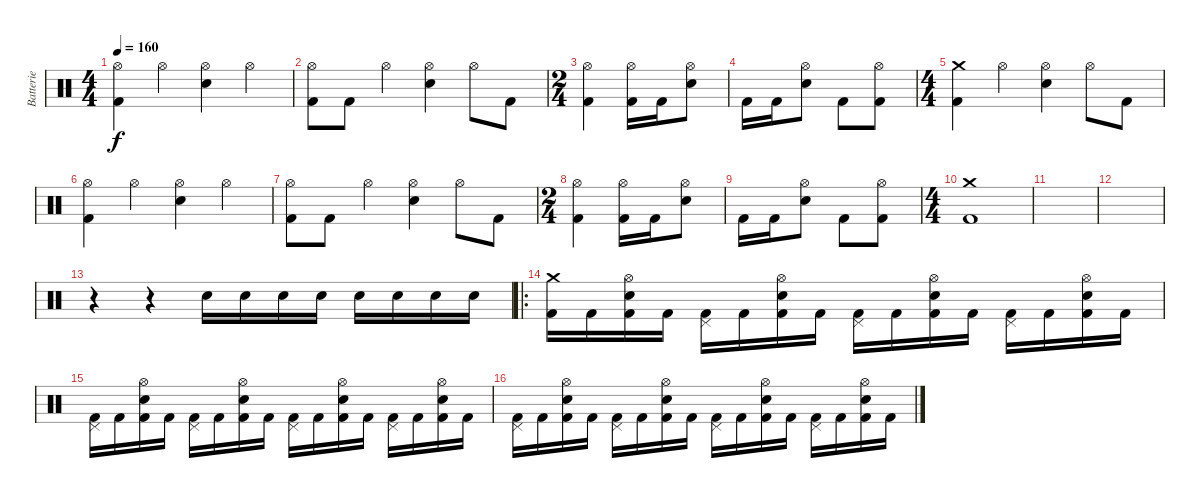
\track ("Batterie" "Batterie") {instrument percussion}
\staff {score}
\articulation defaults
\ts (4 4)
\tempo 160
\clef neutral
\ks c
("Hi-Hat (open)" "Kick (hit) 2").4{dy f} "Hi-Hat (open)".4 ("Hi-Hat (open)" "Electric Snare (hit)").4 "Hi-Hat (open)".4 |
("Hi-Hat (open)" "Kick (hit) 2").8 "Kick (hit) 2".8 "Hi-Hat (open)".4 ("Hi-Hat (open)" "Electric Snare (hit)").4 "Hi-Hat (open)".8 "Kick (hit) 2".8 |
\ts (2 4)
("Hi-Hat (open)" "Kick (hit) 2").4 ("Hi-Hat (open)" "Kick (hit) 2").16 "Kick (hit) 2".16 ("Hi-Hat (open)" "Electric Snare (hit)").8 |
"Kick (hit) 2".16 "Kick (hit) 2".16 ("Hi-Hat (open)" "Electric Snare (hit)").8 "Kick (hit) 2".8 ("Hi-Hat (open)" "Kick (hit) 2").8 |
\ts (4 4)
("Crash medium (hit)" "Kick (hit) 2").4 "Hi-Hat (open)".4 ("Hi-Hat (open)" "Electric Snare (hit)").4 "Hi-Hat (open)".8 "Kick (hit) 2".8 |
("Hi-Hat (open)" "Kick (hit) 2").4 "Hi-Hat (open)".4 ("Hi-Hat (open)" "Electric Snare (hit)").4 "Hi-Hat (open)".4 |
("Hi-Hat (open)" "Kick (hit) 2").8 "Kick (hit) 2".8 "Hi-Hat (open)".4 ("Hi-Hat (open)" "Electric Snare (hit)").4 "Hi-Hat (open)".8 "Kick (hit) 2".8 |
\ts (2 4)
("Hi-Hat (open)" "Kick (hit) 2").4 ("Hi-Hat (open)" "Kick (hit) 2").16 "Kick (hit) 2".16 ("Hi-Hat (open)" "Electric Snare (hit)").8 |
"Kick (hit) 2".16 "Kick (hit) 2".16 ("Hi-Hat (open)" "Electric Snare (hit)").8 "Kick (hit) 2".8 ("Hi-Hat (open)" "Kick (hit) 2").8 |
\ts (4 4)
("Crash medium (hit)" "Kick (hit) 2").1 |
|
|
r.4 r.4 "Electric Snare (hit)".16 "Electric Snare (hit)".16 "Electric Snare (hit)".16 "Electric Snare (hit)".16 "Electric Snare (hit)".16 "Electric Snare (hit)".16 "Electric Snare (hit)".16 "Electric Snare (hit)".16 |
\ro
("Crash medium (hit)" "Kick (hit) 2").16 "Kick (hit) 2".16 ("Hi-Hat (open)" "Electric Snare (hit)" "Kick (hit) 2").16 "Kick (hit) 2".16 ("Pedal Hi-Hat (hit)" "Kick (hit) 2").16 "Kick (hit) 2".16 ("Hi-Hat (open)" "Electric Snare (hit)" "Kick (hit) 2").16 "Kick (hit) 2".16 ("Pedal Hi-Hat (hit)" "Kick (hit) 2").16 "Kick (hit) 2".16 ("Hi-Hat (open)" "Electric Snare (hit)" "Kick (hit) 2").16 "Kick (hit) 2".16 ("Pedal Hi-Hat (hit)" "Kick (hit) 2").16 "Kick (hit) 2".16 ("Hi-Hat (open)" "Electric Snare (hit)" "Kick (hit) 2").16 "Kick (hit) 2".16 |
("Pedal Hi-Hat (hit)" "Kick (hit) 2").16 "Kick (hit) 2".16 ("Hi-Hat (open)" "Electric Snare (hit)" "Kick (hit) 2").16 "Kick (hit) 2".16 ("Pedal Hi-Hat (hit)" "Kick (hit) 2").16 "Kick (hit) 2".16 ("Hi-Hat (open)" "Electric Snare (hit)" "Kick (hit) 2").16 "Kick (hit) 2".16 ("Pedal Hi-Hat (hit)" "Kick (hit) 2").16 "Kick (hit) 2".16 ("Hi-Hat (open)" "Electric Snare (hit)" "Kick (hit) 2").16 "Kick (hit) 2".16 ("Pedal Hi-Hat (hit)" "Kick (hit) 2").16 "Kick (hit) 2".16 ("Hi-Hat (open)" "Electric Snare (hit)" "Kick (hit) 2").16 "Kick (hit) 2".16 |
("Pedal Hi-Hat (hit)" "Kick (hit) 2").16 "Kick (hit) 2".16 ("Hi-Hat (open)" "Electric Snare (hit)" "Kick (hit) 2").16 "Kick (hit) 2".16 ("Pedal Hi-Hat (hit)" "Kick (hit) 2").16 "Kick (hit) 2".16 ("Hi-Hat (open)" "Electric Snare (hit)" "Kick (hit) 2").16 "Kick (hit) 2".16 ("Pedal Hi-Hat (hit)" "Kick (hit) 2").16 "Kick (hit) 2".16 ("Hi-Hat (open)" "Electric Snare (hit)" "Kick (hit) 2").16 "Kick (hit) 2".16 ("Pedal Hi-Hat (hit)" "Kick (hit) 2").16 "Kick (hit) 2".16 ("Hi-Hat (open)" "Electric Snare (hit)" "Kick (hit) 2").16 "Kick (hit) 2".16
